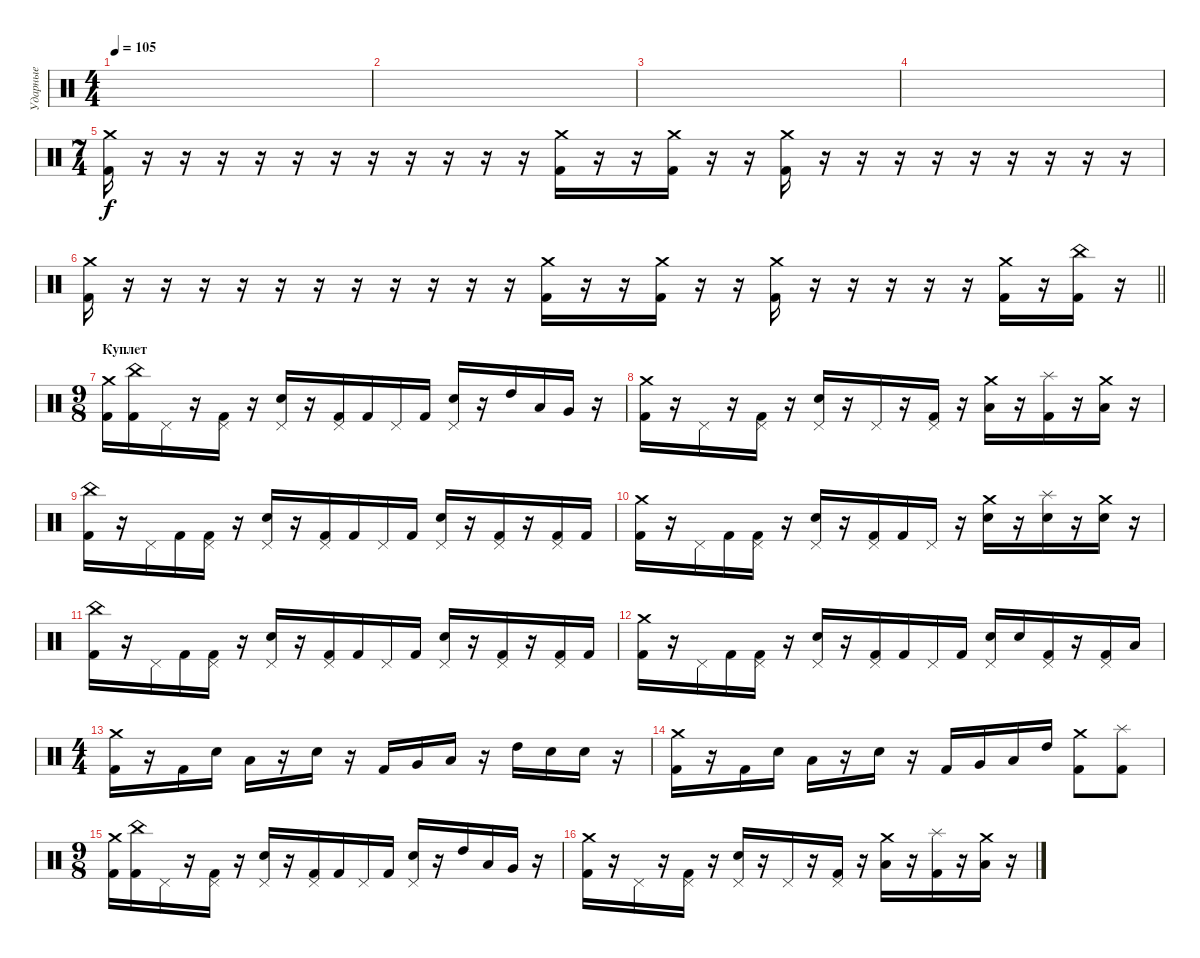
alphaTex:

\track ("Ударные" "Ударные") {instrument percussion}
\staff {score}
\articulation defaults
\ts (4 4)
\tempo 105
\clef neutral
\ks c
|
|
|
|
\ts (7 4)
("Crash medium (hit)" "Kick (hit) 2").16 r.16 r.16 r.16 r.16 r.16 r.16 r.16 r.16 r.16 r.16 r.16 ("Crash medium (hit)" "Kick (hit) 2").16 r.16 r.16 ("Crash medium (hit)" "Kick (hit) 2").16 r.16 r.16 ("Crash medium (hit)" "Kick (hit) 2").16 r.16 r.16 r.16 r.16 r.16 r.16 r.16 r.16 r.16 |
\barLineRight lightlight
("Crash medium (hit)" "Kick (hit) 2").16 r.16 r.16 r.16 r.16 r.16 r.16 r.16 r.16 r.16 r.16 r.16 ("Crash medium (hit)" "Kick (hit) 2").16 r.16 r.16 ("Crash medium (hit)" "Kick (hit) 2").16 r.16 r.16 ("Crash medium (hit)" "Kick (hit) 2").16 r.16 r.16 r.16 r.16 r.16 ("Crash medium (hit)" "Kick (hit) 2").16 r.16 ("China (hit)" "Kick (hit) 2").16 r.16 |
\ts (9 8)
\section ("" "Куплет")
("Crash medium (hit)" "Kick (hit) 2").16 ("China (hit)" "Kick (hit) 2").16 "Pedal Hi-Hat (hit)".16 r.16 ("Kick (hit) 2" "Pedal Hi-Hat (hit)").16 r.16 ("Electric Snare (hit)" "Pedal Hi-Hat (hit)").16 r.16 ("Kick (hit) 2" "Pedal Hi-Hat (hit)").16 "Kick (hit) 2".16 "Pedal Hi-Hat (hit)".16 "Kick (hit) 2".16 ("Electric Snare (hit)" "Pedal Hi-Hat (hit)").16 r.16 "High Tom (hit)".16 "Low Tom (hit)".16 "Very Low Tom (hit)".16 r.16 |
("Crash medium (hit)" "Kick (hit) 2").16 r.16 "Pedal Hi-Hat (hit)".16 r.16 ("Kick (hit) 2" "Pedal Hi-Hat (hit)").16 r.16 ("Electric Snare (hit)" "Pedal Hi-Hat (hit)").16 r.16 "Pedal Hi-Hat (hit)".16 r.16 ("Kick (hit) 2" "Pedal Hi-Hat (hit)").16 r.16 ("Low Tom (hit)" "Crash medium (hit)").16 r.16 ("Kick (hit) 2" "Splash (hit)").16 r.16 ("Low Tom (hit)" "Crash medium (hit)").16 r.16 |
("Kick (hit) 2" "China (hit)").16 r.16 "Pedal Hi-Hat (hit)".16 "Kick (hit) 2".16 ("Kick (hit) 2" "Pedal Hi-Hat (hit)").16 r.16 ("Electric Snare (hit)" "Pedal Hi-Hat (hit)").16 r.16 ("Kick (hit) 2" "Pedal Hi-Hat (hit)").16 "Kick (hit) 2".16 "Pedal Hi-Hat (hit)".16 "Kick (hit) 2".16 ("Electric Snare (hit)" "Pedal Hi-Hat (hit)").16 r.16 ("Kick (hit) 2" "Pedal Hi-Hat (hit)").16 r.16 ("Kick (hit) 2" "Pedal Hi-Hat (hit)").16 "Kick (hit) 2".16 |
("Kick (hit) 2" "Crash medium (hit)").16 r.16 "Pedal Hi-Hat (hit)".16 "Kick (hit) 2".16 ("Kick (hit) 2" "Pedal Hi-Hat (hit)").16 r.16 ("Electric Snare (hit)" "Pedal Hi-Hat (hit)").16 r.16 ("Kick (hit) 2" "Pedal Hi-Hat (hit)").16 "Kick (hit) 2".16 "Pedal Hi-Hat (hit)".16 r.16 ("Electric Snare (hit)" "Crash medium (hit)").16 r.16 ("Electric Snare (hit)" "Splash (hit)").16 r.16 ("Electric Snare (hit)" "Crash medium (hit)").16 r.16 |
("Kick (hit) 2" "China (hit)").16 r.16 "Pedal Hi-Hat (hit)".16 "Kick (hit) 2".16 ("Kick (hit) 2" "Pedal Hi-Hat (hit)").16 r.16 ("Electric Snare (hit)" "Pedal Hi-Hat (hit)").16 r.16 ("Kick (hit) 2" "Pedal Hi-Hat (hit)").16 "Kick (hit) 2".16 "Pedal Hi-Hat (hit)".16 "Kick (hit) 2".16 ("Electric Snare (hit)" "Pedal Hi-Hat (hit)").16 r.16 ("Kick (hit) 2" "Pedal Hi-Hat (hit)").16 r.16 ("Kick (hit) 2" "Pedal Hi-Hat (hit)").16 "Kick (hit) 2".16 |
("Kick (hit) 2" "Crash medium (hit)").16 r.16 "Pedal Hi-Hat (hit)".16 "Kick (hit) 2".16 ("Kick (hit) 2" "Pedal Hi-Hat (hit)").16 r.16 ("Electric Snare (hit)" "Pedal Hi-Hat (hit)").16 r.16 ("Kick (hit) 2" "Pedal Hi-Hat (hit)").16 "Kick (hit) 2".16 "Pedal Hi-Hat (hit)".16 "Kick (hit) 2".16 ("Electric Snare (hit)" "Pedal Hi-Hat (hit)").16 "Electric Snare (hit)".16 ("Kick (hit) 2" "Pedal Hi-Hat (hit)").16 r.16 ("Kick (hit) 2" "Pedal Hi-Hat (hit)").16 "Low Tom (hit)".16 |
\ts (4 4)
("Crash medium (hit)" "Kick (hit) 2").16 r.16 "Kick (hit) 2".16 "Electric Snare (hit)".16 "Low Tom (hit)".16 r.16 "Electric Snare (hit)".16 r.16 "Kick (hit) 2".16 "Very Low Tom (hit)".16 "Low Tom (hit)".16 r.16 "High Tom (hit)".16 "Electric Snare (hit)".16 "Electric Snare (hit)".16 r.16 |
("Crash medium (hit)" "Kick (hit) 2").16 r.16 "Kick (hit) 2".16 "Electric Snare (hit)".16 "Low Tom (hit)".16 r.16 "Electric Snare (hit)".16 r.16 "Kick (hit) 2".16 "Very Low Tom (hit)".16 "Low Tom (hit)".16 "High Tom (hit)".16 ("Crash medium (hit)" "Kick (hit) 2").8 ("Splash (hit)" "Kick (hit) 2").8 |
\ts (9 8)
("Crash medium (hit)" "Kick (hit) 2").16 ("China (hit)" "Kick (hit) 2").16 "Pedal Hi-Hat (hit)".16 r.16 ("Kick (hit) 2" "Pedal Hi-Hat (hit)").16 r.16 ("Electric Snare (hit)" "Pedal Hi-Hat (hit)").16 r.16 ("Kick (hit) 2" "Pedal Hi-Hat (hit)").16 "Kick (hit) 2".16 "Pedal Hi-Hat (hit)".16 "Kick (hit) 2".16 ("Electric Snare (hit)" "Pedal Hi-Hat (hit)").16 r.16 "High Tom (hit)".16 "Low Tom (hit)".16 "Very Low Tom (hit)".16 r.16 |
("Crash medium (hit)" "Kick (hit) 2").16 r.16 "Pedal Hi-Hat (hit)".16 r.16 ("Kick (hit) 2" "Pedal Hi-Hat (hit)").16 r.16 ("Electric Snare (hit)" "Pedal Hi-Hat (hit)").16 r.16 "Pedal Hi-Hat (hit)".16 r.16 ("Kick (hit) 2" "Pedal Hi-Hat (hit)").16 r.16 ("Low Tom (hit)" "Crash medium (hit)").16 r.16 ("Kick (hit) 2" "Splash (hit)").16 r.16 ("Low Tom (hit)" "Crash medium (hit)").16 r.16
